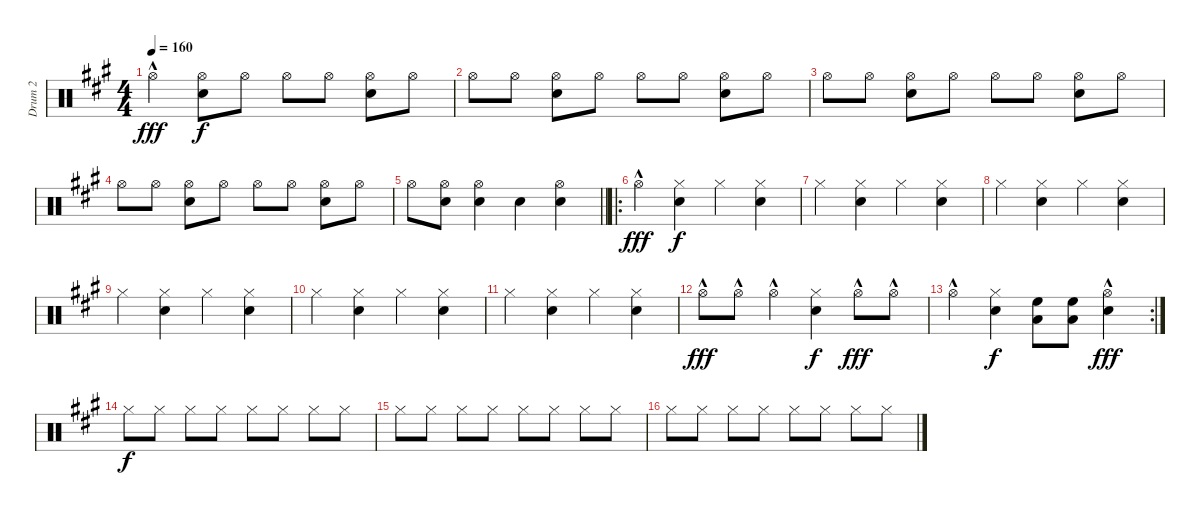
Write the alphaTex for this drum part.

\track ("Drum 2" "Drum 2") {instrument percussion}
\staff {score}
\articulation defaults
\ts (4 4)
\tempo 160
\clef neutral
\ks a "Hi-Hat (open)"{hac}.4{dy fff}
("Hi-Hat (open)" "Snare (hit) 2").8{dy f} "Hi-Hat (open)".8 "Hi-Hat (open)".8 "Hi-Hat (open)".8 ("Hi-Hat (open)" "Snare (hit) 2").8 "Hi-Hat (open)".8 |
"Hi-Hat (open)".8 "Hi-Hat (open)".8 ("Hi-Hat (open)" "Snare (hit) 2").8 "Hi-Hat (open)".8 "Hi-Hat (open)".8 "Hi-Hat (open)".8 ("Hi-Hat (open)" "Snare (hit) 2").8 "Hi-Hat (open)".8 |
"Hi-Hat (open)".8 "Hi-Hat (open)".8 ("Hi-Hat (open)" "Snare (hit) 2").8 "Hi-Hat (open)".8 "Hi-Hat (open)".8 "Hi-Hat (open)".8 ("Hi-Hat (open)" "Snare (hit) 2").8 "Hi-Hat (open)".8 |
"Hi-Hat (open)".8 "Hi-Hat (open)".8 ("Hi-Hat (open)" "Snare (hit) 2").8 "Hi-Hat (open)".8 "Hi-Hat (open)".8 "Hi-Hat (open)".8 ("Hi-Hat (open)" "Snare (hit) 2").8 "Hi-Hat (open)".8 |
\barLineRight lightlight "Hi-Hat (open)".8
("Hi-Hat (open)" "Snare (hit) 2").8 ("Hi-Hat (open)" "Snare (hit) 2").4 "Snare (hit) 2".4 ("Hi-Hat (open)" "Snare (hit) 2").4 |
\ro "Hi-Hat (open)"{hac}.4{dy fff}
("Hi-Hat (closed)" "Snare (hit) 2").4{dy f} "Hi-Hat (closed)".4 ("Hi-Hat (closed)" "Snare (hit) 2").4 |
"Hi-Hat (closed)".4 ("Hi-Hat (closed)" "Snare (hit) 2").4 "Hi-Hat (closed)".4 ("Hi-Hat (closed)" "Snare (hit) 2").4 |
"Hi-Hat (closed)".4 ("Hi-Hat (closed)" "Snare (hit) 2").4 "Hi-Hat (closed)".4 ("Hi-Hat (closed)" "Snare (hit) 2").4 |
"Hi-Hat (closed)".4 ("Hi-Hat (closed)" "Snare (hit) 2").4 "Hi-Hat (closed)".4 ("Hi-Hat (closed)" "Snare (hit) 2").4 |
"Hi-Hat (closed)".4 ("Hi-Hat (closed)" "Snare (hit) 2").4 "Hi-Hat (closed)".4 ("Hi-Hat (closed)" "Snare (hit) 2").4 |
"Hi-Hat (closed)".4 ("Hi-Hat (closed)" "Snare (hit) 2").4 "Hi-Hat (closed)".4 ("Hi-Hat (closed)" "Snare (hit) 2").4 |
"Hi-Hat (open)"{hac}.8{dy fff} "Hi-Hat (open)"{hac}.8 "Hi-Hat (open)"{hac}.4 ("Hi-Hat (closed)" "Snare (hit) 2").4{dy f} "Hi-Hat (open)"{hac}.8{dy fff} "Hi-Hat (open)"{hac}.8 |
\rc 2 "Hi-Hat (open)"{hac}.4
("Hi-Hat (closed)" "Snare (hit) 2").4{dy f} ("High Floor Tom (hit)" "Low Tom (hit)").8 ("High Floor Tom (hit)" "Low Tom (hit)").8 ("Hi-Hat (open)"{hac} "Snare (hit) 2").4{dy fff} |
"Hi-Hat (closed)".8{dy f} "Hi-Hat (closed)".8 "Hi-Hat (closed)".8 "Hi-Hat (closed)".8 "Hi-Hat (closed)".8 "Hi-Hat (closed)".8 "Hi-Hat (closed)".8 "Hi-Hat (closed)".8 |
"Hi-Hat (closed)".8 "Hi-Hat (closed)".8 "Hi-Hat (closed)".8 "Hi-Hat (closed)".8 "Hi-Hat (closed)".8 "Hi-Hat (closed)".8 "Hi-Hat (closed)".8 "Hi-Hat (closed)".8 |
"Hi-Hat (closed)".8 "Hi-Hat (closed)".8 "Hi-Hat (closed)".8 "Hi-Hat (closed)".8 "Hi-Hat (closed)".8 "Hi-Hat (closed)".8 "Hi-Hat (closed)".8 "Hi-Hat (closed)".8
